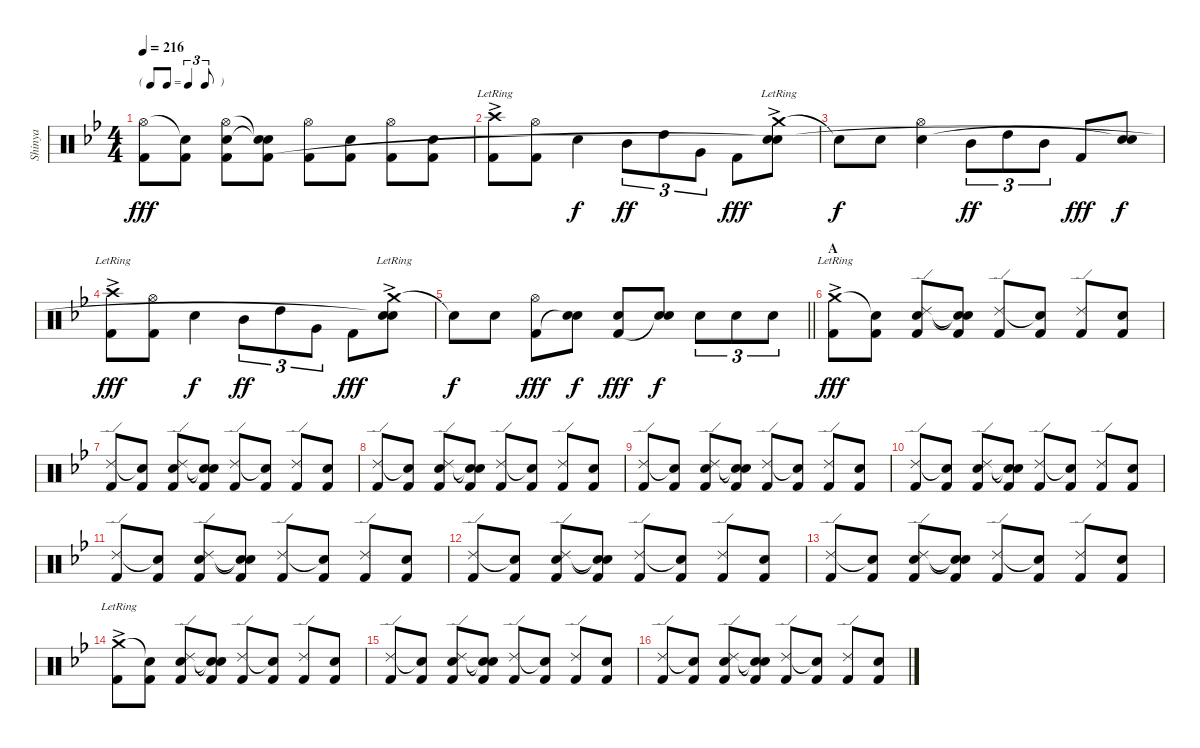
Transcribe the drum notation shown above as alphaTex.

\track ("Shinya" "Shinya") {instrument percussion}
\staff {score}
\articulation defaults
\ts (4 4)
\tf triplet8th
\tempo 216
\clef neutral
\ks bb
("Hi-Hat (open)" "Kick (hit) 2").8{dy fff} ("Snare (hit)"{t} "Kick (hit) 2").8 ("Hi-Hat (open)" "Electric Snare (hit)" "Kick (hit) 2").8 ("Snare (hit)"{t} "Snare (hit)"{t} "Kick (hit) 2").8 ("Hi-Hat (open)" "Kick (hit) 2").8 ("Electric Snare (hit)" "Kick (hit) 2").8 ("Hi-Hat (open)" "Kick (hit) 2").8 ("Electric Snare (hit)" "Kick (hit) 2").8 |
("Crash high (hit)"{ac lr} "Kick (hit) 2").8 ("Hi-Hat (open)" "Kick (hit) 2").8 "Electric Snare (hit)".4{dy f} "Mid Tom (hit)".8{tu (3 2) dy ff} "High Tom (hit)".8{tu (3 2)} "Very Low Tom (hit)".8{tu (3 2)} "Kick (hit) 2".8{dy fff} ("Crash medium (hit)"{ac lr} "Electric Snare (hit)" "Snare (hit)"{t}).8 |
"Snare (hit)"{t}.8{dy f} "Electric Snare (hit)".8 ("Hi-Hat (open)" "Electric Snare (hit)").4 "Mid Tom (hit)".8{tu (3 2) dy ff} "High Tom (hit)".8{tu (3 2)} "Mid Tom (hit)".8{tu (3 2)} "Kick (hit) 2".8{dy fff} ("Electric Snare (hit)" "Snare (hit)"{t}).8{dy f} |
("Crash high (hit)"{ac lr} "Kick (hit) 2").8{dy fff} ("Hi-Hat (open)" "Kick (hit) 2").8 "Electric Snare (hit)".4{dy f} "Mid Tom (hit)".8{tu (3 2) dy ff} "High Tom (hit)".8{tu (3 2)} "Very Low Tom (hit)".8{tu (3 2)} "Kick (hit) 2".8{dy fff} ("Crash medium (hit)"{ac lr} "Electric Snare (hit)" "Snare (hit)"{t}).8 |
\barLineRight lightlight "Snare (hit)"{t}.8{dy f} "Electric Snare (hit)".8
("Hi-Hat (open)" "Kick (hit) 2").8{dy fff} ("Electric Snare (hit)" "Snare (hit)"{t}).8{dy f} ("Electric Snare (hit)" "Kick (hit) 2").8{dy fff} ("Electric Snare (hit)" "Snare (hit)"{t}).8{dy f} "Electric Snare (hit)".8{tu (3 2)} "Electric Snare (hit)".8{tu (3 2)} "Electric Snare (hit)".8{tu (3 2)} |
\section ("" "A")
("Crash medium (hit)"{ac lr} "Kick (hit) 2").8{dy fff} ("Snare (hit)"{t} "Kick (hit) 2").8 ("Ride (edge) 2" "Electric Snare (hit)" "Kick (hit) 2").8 ("Snare (hit)"{t} "Snare (hit)"{t} "Kick (hit) 2").8 ("Ride (edge) 2" "Kick (hit) 2").8 ("Snare (hit)"{t} "Kick (hit) 2").8 ("Ride (edge) 2" "Kick (hit) 2").8 ("Electric Snare (hit)" "Kick (hit) 2").8 |
("Ride (edge) 2" "Kick (hit) 2").8 ("Snare (hit)"{t} "Kick (hit) 2").8 ("Ride (edge) 2" "Electric Snare (hit)" "Kick (hit) 2").8 ("Snare (hit)"{t} "Snare (hit)"{t} "Kick (hit) 2").8 ("Ride (edge) 2" "Kick (hit) 2").8 ("Snare (hit)"{t} "Kick (hit) 2").8 ("Ride (edge) 2" "Kick (hit) 2").8 ("Electric Snare (hit)" "Kick (hit) 2").8 |
("Ride (edge) 2" "Kick (hit) 2").8 ("Snare (hit)"{t} "Kick (hit) 2").8 ("Ride (edge) 2" "Electric Snare (hit)" "Kick (hit) 2").8 ("Snare (hit)"{t} "Snare (hit)"{t} "Kick (hit) 2").8 ("Ride (edge) 2" "Kick (hit) 2").8 ("Snare (hit)"{t} "Kick (hit) 2").8 ("Ride (edge) 2" "Kick (hit) 2").8 ("Electric Snare (hit)" "Kick (hit) 2").8 |
("Ride (edge) 2" "Kick (hit) 2").8 ("Snare (hit)"{t} "Kick (hit) 2").8 ("Ride (edge) 2" "Electric Snare (hit)" "Kick (hit) 2").8 ("Snare (hit)"{t} "Snare (hit)"{t} "Kick (hit) 2").8 ("Ride (edge) 2" "Kick (hit) 2").8 ("Snare (hit)"{t} "Kick (hit) 2").8 ("Ride (edge) 2" "Kick (hit) 2").8 ("Electric Snare (hit)" "Kick (hit) 2").8 |
("Ride (edge) 2" "Kick (hit) 2").8 ("Snare (hit)"{t} "Kick (hit) 2").8 ("Ride (edge) 2" "Electric Snare (hit)" "Kick (hit) 2").8 ("Snare (hit)"{t} "Snare (hit)"{t} "Kick (hit) 2").8 ("Ride (edge) 2" "Kick (hit) 2").8 ("Snare (hit)"{t} "Kick (hit) 2").8 ("Ride (edge) 2" "Kick (hit) 2").8 ("Electric Snare (hit)" "Kick (hit) 2").8 |
("Ride (edge) 2" "Kick (hit) 2").8 ("Snare (hit)"{t} "Kick (hit) 2").8 ("Ride (edge) 2" "Electric Snare (hit)" "Kick (hit) 2").8 ("Snare (hit)"{t} "Snare (hit)"{t} "Kick (hit) 2").8 ("Ride (edge) 2" "Kick (hit) 2").8 ("Snare (hit)"{t} "Kick (hit) 2").8 ("Ride (edge) 2" "Kick (hit) 2").8 ("Electric Snare (hit)" "Kick (hit) 2").8 |
("Ride (edge) 2" "Kick (hit) 2").8 ("Snare (hit)"{t} "Kick (hit) 2").8 ("Ride (edge) 2" "Electric Snare (hit)" "Kick (hit) 2").8 ("Snare (hit)"{t} "Snare (hit)"{t} "Kick (hit) 2").8 ("Ride (edge) 2" "Kick (hit) 2").8 ("Snare (hit)"{t} "Kick (hit) 2").8 ("Ride (edge) 2" "Kick (hit) 2").8 ("Electric Snare (hit)" "Kick (hit) 2").8 |
("Ride (edge) 2" "Kick (hit) 2").8 ("Snare (hit)"{t} "Kick (hit) 2").8 ("Ride (edge) 2" "Electric Snare (hit)" "Kick (hit) 2").8 ("Snare (hit)"{t} "Snare (hit)"{t} "Kick (hit) 2").8 ("Ride (edge) 2" "Kick (hit) 2").8 ("Snare (hit)"{t} "Kick (hit) 2").8 ("Ride (edge) 2" "Kick (hit) 2").8 ("Electric Snare (hit)" "Kick (hit) 2").8 |
("Crash medium (hit)"{ac lr} "Kick (hit) 2").8 ("Snare (hit)"{t} "Kick (hit) 2").8 ("Ride (edge) 2" "Electric Snare (hit)" "Kick (hit) 2").8 ("Snare (hit)"{t} "Snare (hit)"{t} "Kick (hit) 2").8 ("Ride (edge) 2" "Kick (hit) 2").8 ("Snare (hit)"{t} "Kick (hit) 2").8 ("Ride (edge) 2" "Kick (hit) 2").8 ("Electric Snare (hit)" "Kick (hit) 2").8 |
("Ride (edge) 2" "Kick (hit) 2").8 ("Snare (hit)"{t} "Kick (hit) 2").8 ("Ride (edge) 2" "Electric Snare (hit)" "Kick (hit) 2").8 ("Snare (hit)"{t} "Snare (hit)"{t} "Kick (hit) 2").8 ("Ride (edge) 2" "Kick (hit) 2").8 ("Snare (hit)"{t} "Kick (hit) 2").8 ("Ride (edge) 2" "Kick (hit) 2").8 ("Electric Snare (hit)" "Kick (hit) 2").8 |
("Ride (edge) 2" "Kick (hit) 2").8 ("Snare (hit)"{t} "Kick (hit) 2").8 ("Ride (edge) 2" "Electric Snare (hit)" "Kick (hit) 2").8 ("Snare (hit)"{t} "Snare (hit)"{t} "Kick (hit) 2").8 ("Ride (edge) 2" "Kick (hit) 2").8 ("Snare (hit)"{t} "Kick (hit) 2").8 ("Ride (edge) 2" "Kick (hit) 2").8 ("Electric Snare (hit)" "Kick (hit) 2").8
